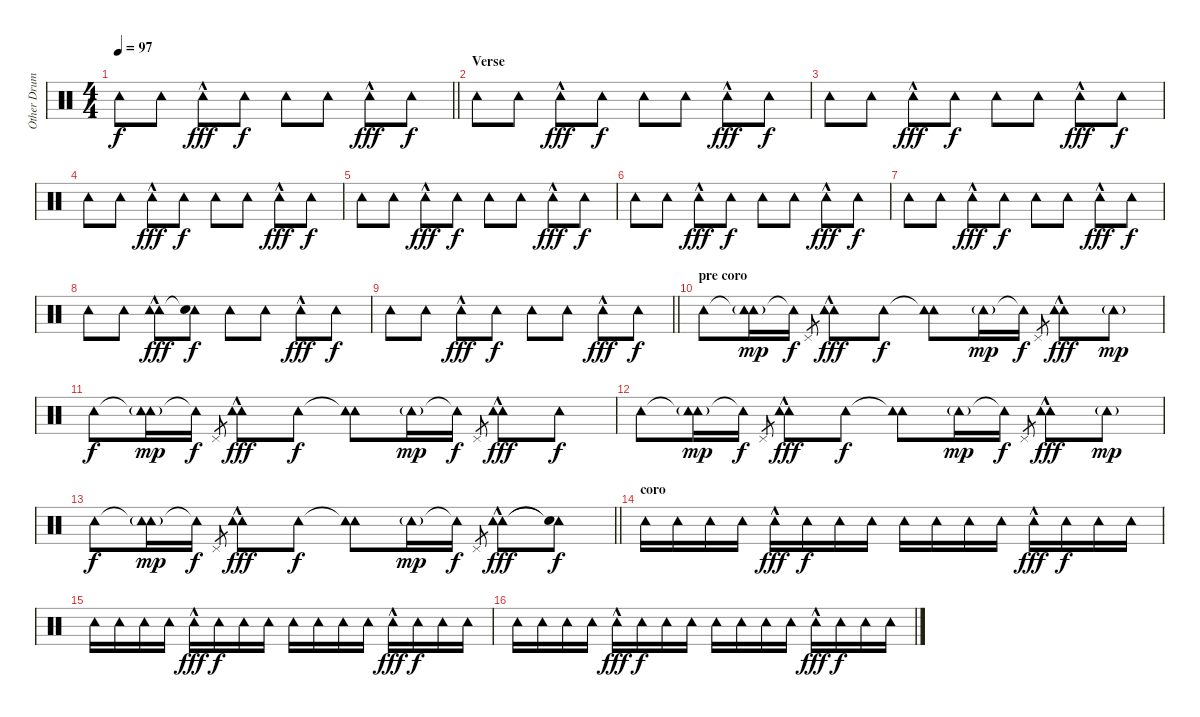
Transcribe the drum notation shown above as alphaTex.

\track ("Other Drumer" "Other Drum") {instrument percussion}
\staff {score}
\articulation defaults
\ts (4 4)
\tempo 97
\clef neutral
\barLineRight lightlight
\ks c "Tambourine (hit)".8{dy f} "Tambourine (hit)".8 "Tambourine (hit)"{hac}.8{dy fff} "Tambourine (hit)".8{dy f} "Tambourine (hit)".8 "Tambourine (hit)".8 "Tambourine (hit)"{hac}.8{dy fff} "Tambourine (hit)".8{dy f}
|
\section ("" "Verse")
"Tambourine (hit)".8 "Tambourine (hit)".8 "Tambourine (hit)"{hac}.8{dy fff} "Tambourine (hit)".8{dy f} "Tambourine (hit)".8 "Tambourine (hit)".8 "Tambourine (hit)"{hac}.8{dy fff} "Tambourine (hit)".8{dy f} |
"Tambourine (hit)".8 "Tambourine (hit)".8 "Tambourine (hit)"{hac}.8{dy fff} "Tambourine (hit)".8{dy f} "Tambourine (hit)".8 "Tambourine (hit)".8 "Tambourine (hit)"{hac}.8{dy fff} "Tambourine (hit)".8{dy f} |
"Tambourine (hit)".8 "Tambourine (hit)".8 "Tambourine (hit)"{hac}.8{dy fff} "Tambourine (hit)".8{dy f} "Tambourine (hit)".8 "Tambourine (hit)".8 "Tambourine (hit)"{hac}.8{dy fff} "Tambourine (hit)".8{dy f} |
"Tambourine (hit)".8 "Tambourine (hit)".8 "Tambourine (hit)"{hac}.8{dy fff} "Tambourine (hit)".8{dy f} "Tambourine (hit)".8 "Tambourine (hit)".8 "Tambourine (hit)"{hac}.8{dy fff} "Tambourine (hit)".8{dy f} |
"Tambourine (hit)".8 "Tambourine (hit)".8 "Tambourine (hit)"{hac}.8{dy fff} "Tambourine (hit)".8{dy f} "Tambourine (hit)".8 "Tambourine (hit)".8 "Tambourine (hit)"{hac}.8{dy fff} "Tambourine (hit)".8{dy f} |
"Tambourine (hit)".8 "Tambourine (hit)".8 "Tambourine (hit)"{hac}.8{dy fff} "Tambourine (hit)".8{dy f} "Tambourine (hit)".8 "Tambourine (hit)".8 "Tambourine (hit)"{hac}.8{dy fff} "Tambourine (hit)".8{dy f} |
"Tambourine (hit)".8 "Tambourine (hit)".8 ("Tambourine (hit)"{hac} "Tambourine (hit)").8{dy fff} ("Tambourine (hit)" "Snare (hit)"{t}).8{dy f} "Tambourine (hit)".8 "Tambourine (hit)".8 "Tambourine (hit)"{hac}.8{dy fff} "Tambourine (hit)".8{dy f} |
\barLineRight lightlight "Tambourine (hit)".8 "Tambourine (hit)".8 "Tambourine (hit)"{hac}.8{dy fff} "Tambourine (hit)".8{dy f} "Tambourine (hit)".8 "Tambourine (hit)".8 "Tambourine (hit)"{hac}.8{dy fff} "Tambourine (hit)".8{dy f}
|
\section ("" "pre coro")
"Tambourine (hit)".8 ("Tambourine (hit)"{t} "Tambourine (hit)"{g}).16{dy mp} "Tambourine (hit)"{t}.16{dy f} "Pedal Hi-Hat (hit)".8{gr} ("Tambourine (hit)" "Tambourine (hit)"{hac}).8{dy fff} "Tambourine (hit)".8{dy f} ("Tambourine (hit)"{t} "Tambourine (hit)").8 "Tambourine (hit)"{g}.16{dy mp} "Tambourine (hit)"{t}.16{dy f} "Pedal Hi-Hat (hit)".8{gr} ("Tambourine (hit)" "Tambourine (hit)"{hac}).8{dy fff} "Tambourine (hit)"{g}.8{dy mp} |
"Tambourine (hit)".8{dy f} ("Tambourine (hit)"{t} "Tambourine (hit)"{g}).16{dy mp} "Tambourine (hit)"{t}.16{dy f} "Pedal Hi-Hat (hit)".8{gr} ("Tambourine (hit)" "Tambourine (hit)"{hac}).8{dy fff} "Tambourine (hit)".8{dy f} ("Tambourine (hit)"{t} "Tambourine (hit)").8 "Tambourine (hit)"{g}.16{dy mp} "Tambourine (hit)"{t}.16{dy f} "Pedal Hi-Hat (hit)".8{gr} ("Tambourine (hit)" "Tambourine (hit)"{hac}).8{dy fff} "Tambourine (hit)".8{dy f} |
"Tambourine (hit)".8 ("Tambourine (hit)"{t} "Tambourine (hit)"{g}).16{dy mp} "Tambourine (hit)"{t}.16{dy f} "Pedal Hi-Hat (hit)".8{gr} ("Tambourine (hit)" "Tambourine (hit)"{hac}).8{dy fff} "Tambourine (hit)".8{dy f} ("Tambourine (hit)"{t} "Tambourine (hit)").8 "Tambourine (hit)"{g}.16{dy mp} "Tambourine (hit)"{t}.16{dy f} "Pedal Hi-Hat (hit)".8{gr} ("Tambourine (hit)" "Tambourine (hit)"{hac}).8{dy fff} "Tambourine (hit)"{g}.8{dy mp} |
\barLineRight lightlight "Tambourine (hit)".8{dy f}
("Tambourine (hit)"{t} "Tambourine (hit)"{g}).16{dy mp} "Tambourine (hit)"{t}.16{dy f} "Pedal Hi-Hat (hit)".8{gr} ("Tambourine (hit)" "Tambourine (hit)"{hac}).8{dy fff} "Tambourine (hit)".8{dy f} ("Tambourine (hit)"{t} "Tambourine (hit)").8 "Tambourine (hit)"{g}.16{dy mp} "Tambourine (hit)"{t}.16{dy f} "Pedal Hi-Hat (hit)".8{gr} ("Tambourine (hit)" "Tambourine (hit)"{hac}).8{dy fff} ("Tambourine (hit)"{t} "Snare (hit)"{t}).8{dy f} |
\section ("" "coro")
"Tambourine (hit)".16 "Tambourine (hit)".16 "Tambourine (hit)".16 "Tambourine (hit)".16 "Tambourine (hit)"{hac}.16{dy fff} "Tambourine (hit)".16{dy f} "Tambourine (hit)".16 "Tambourine (hit)".16 "Tambourine (hit)".16 "Tambourine (hit)".16 "Tambourine (hit)".16 "Tambourine (hit)".16 "Tambourine (hit)"{hac}.16{dy fff} "Tambourine (hit)".16{dy f} "Tambourine (hit)".16 "Tambourine (hit)".16 |
"Tambourine (hit)".16 "Tambourine (hit)".16 "Tambourine (hit)".16 "Tambourine (hit)".16 "Tambourine (hit)"{hac}.16{dy fff} "Tambourine (hit)".16{dy f} "Tambourine (hit)".16 "Tambourine (hit)".16 "Tambourine (hit)".16 "Tambourine (hit)".16 "Tambourine (hit)".16 "Tambourine (hit)".16 "Tambourine (hit)"{hac}.16{dy fff} "Tambourine (hit)".16{dy f} "Tambourine (hit)".16 "Tambourine (hit)".16 |
"Tambourine (hit)".16 "Tambourine (hit)".16 "Tambourine (hit)".16 "Tambourine (hit)".16 "Tambourine (hit)"{hac}.16{dy fff} "Tambourine (hit)".16{dy f} "Tambourine (hit)".16 "Tambourine (hit)".16 "Tambourine (hit)".16 "Tambourine (hit)".16 "Tambourine (hit)".16 "Tambourine (hit)".16 "Tambourine (hit)"{hac}.16{dy fff} "Tambourine (hit)".16{dy f} "Tambourine (hit)".16 "Tambourine (hit)".16
